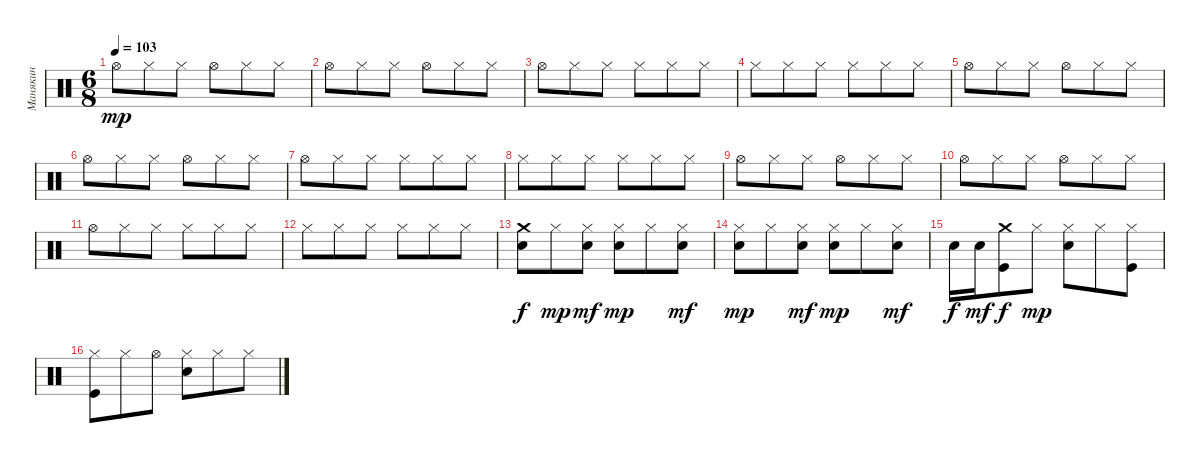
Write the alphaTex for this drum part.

\track ("Манякин" "Манякин") {instrument percussion}
\staff {score}
\articulation defaults
\ts (6 8)
\tempo 103
\clef neutral
\ks c "Hi-Hat (open)".8{dy mp} "Hi-Hat (closed)".8 "Hi-Hat (closed)".8 "Hi-Hat (open)".8 "Hi-Hat (closed)".8 "Hi-Hat (closed)".8
|
"Hi-Hat (open)".8 "Hi-Hat (closed)".8 "Hi-Hat (closed)".8 "Hi-Hat (open)".8 "Hi-Hat (closed)".8 "Hi-Hat (closed)".8 |
"Hi-Hat (open)".8 "Hi-Hat (closed)".8 "Hi-Hat (closed)".8 "Hi-Hat (closed)".8 "Hi-Hat (closed)".8 "Hi-Hat (closed)".8 |
"Hi-Hat (closed)".8 "Hi-Hat (closed)".8 "Hi-Hat (closed)".8 "Hi-Hat (closed)".8 "Hi-Hat (closed)".8 "Hi-Hat (closed)".8 |
"Hi-Hat (open)".8 "Hi-Hat (closed)".8 "Hi-Hat (closed)".8 "Hi-Hat (open)".8 "Hi-Hat (closed)".8 "Hi-Hat (closed)".8 |
"Hi-Hat (open)".8 "Hi-Hat (closed)".8 "Hi-Hat (closed)".8 "Hi-Hat (open)".8 "Hi-Hat (closed)".8 "Hi-Hat (closed)".8 |
"Hi-Hat (open)".8 "Hi-Hat (closed)".8 "Hi-Hat (closed)".8 "Hi-Hat (closed)".8 "Hi-Hat (closed)".8 "Hi-Hat (closed)".8 |
"Hi-Hat (closed)".8 "Hi-Hat (closed)".8 "Hi-Hat (closed)".8 "Hi-Hat (closed)".8 "Hi-Hat (closed)".8 "Hi-Hat (closed)".8 |
"Hi-Hat (open)".8 "Hi-Hat (closed)".8 "Hi-Hat (closed)".8 "Hi-Hat (open)".8 "Hi-Hat (closed)".8 "Hi-Hat (closed)".8 |
"Hi-Hat (open)".8 "Hi-Hat (closed)".8 "Hi-Hat (closed)".8 "Hi-Hat (open)".8 "Hi-Hat (closed)".8 "Hi-Hat (closed)".8 |
"Hi-Hat (open)".8 "Hi-Hat (closed)".8 "Hi-Hat (closed)".8 "Hi-Hat (closed)".8 "Hi-Hat (closed)".8 "Hi-Hat (closed)".8 |
"Hi-Hat (closed)".8 "Hi-Hat (closed)".8 "Hi-Hat (closed)".8 "Hi-Hat (closed)".8 "Hi-Hat (closed)".8 "Hi-Hat (closed)".8 |
("Crash medium (hit)" "Electric Snare (hit)").8{dy f} "Hi-Hat (closed)".8{dy mp} ("Hi-Hat (closed)" "Electric Snare (hit)").8{dy mf} ("Hi-Hat (closed)" "Electric Snare (hit)").8{dy mp} "Hi-Hat (closed)".8 ("Hi-Hat (closed)" "Electric Snare (hit)").8{dy mf} |
("Hi-Hat (closed)" "Electric Snare (hit)").8{dy mp} "Hi-Hat (closed)".8 ("Hi-Hat (closed)" "Electric Snare (hit)").8{dy mf} ("Hi-Hat (closed)" "Electric Snare (hit)").8{dy mp} "Hi-Hat (closed)".8 ("Hi-Hat (closed)" "Electric Snare (hit)").8{dy mf} |
"Electric Snare (hit)".16{dy f} "Electric Snare (hit)".16{dy mf} ("Crash medium (hit)" "Kick (hit)").8{dy f} "Hi-Hat (closed)".8{dy mp} ("Hi-Hat (closed)" "Electric Snare (hit)").8 "Hi-Hat (closed)".8 ("Hi-Hat (closed)" "Kick (hit)").8 |
("Hi-Hat (closed)" "Kick (hit)").8 "Hi-Hat (closed)".8 "Hi-Hat (open)".8 ("Hi-Hat (closed)" "Electric Snare (hit)").8 "Hi-Hat (closed)".8 "Hi-Hat (closed)".8
